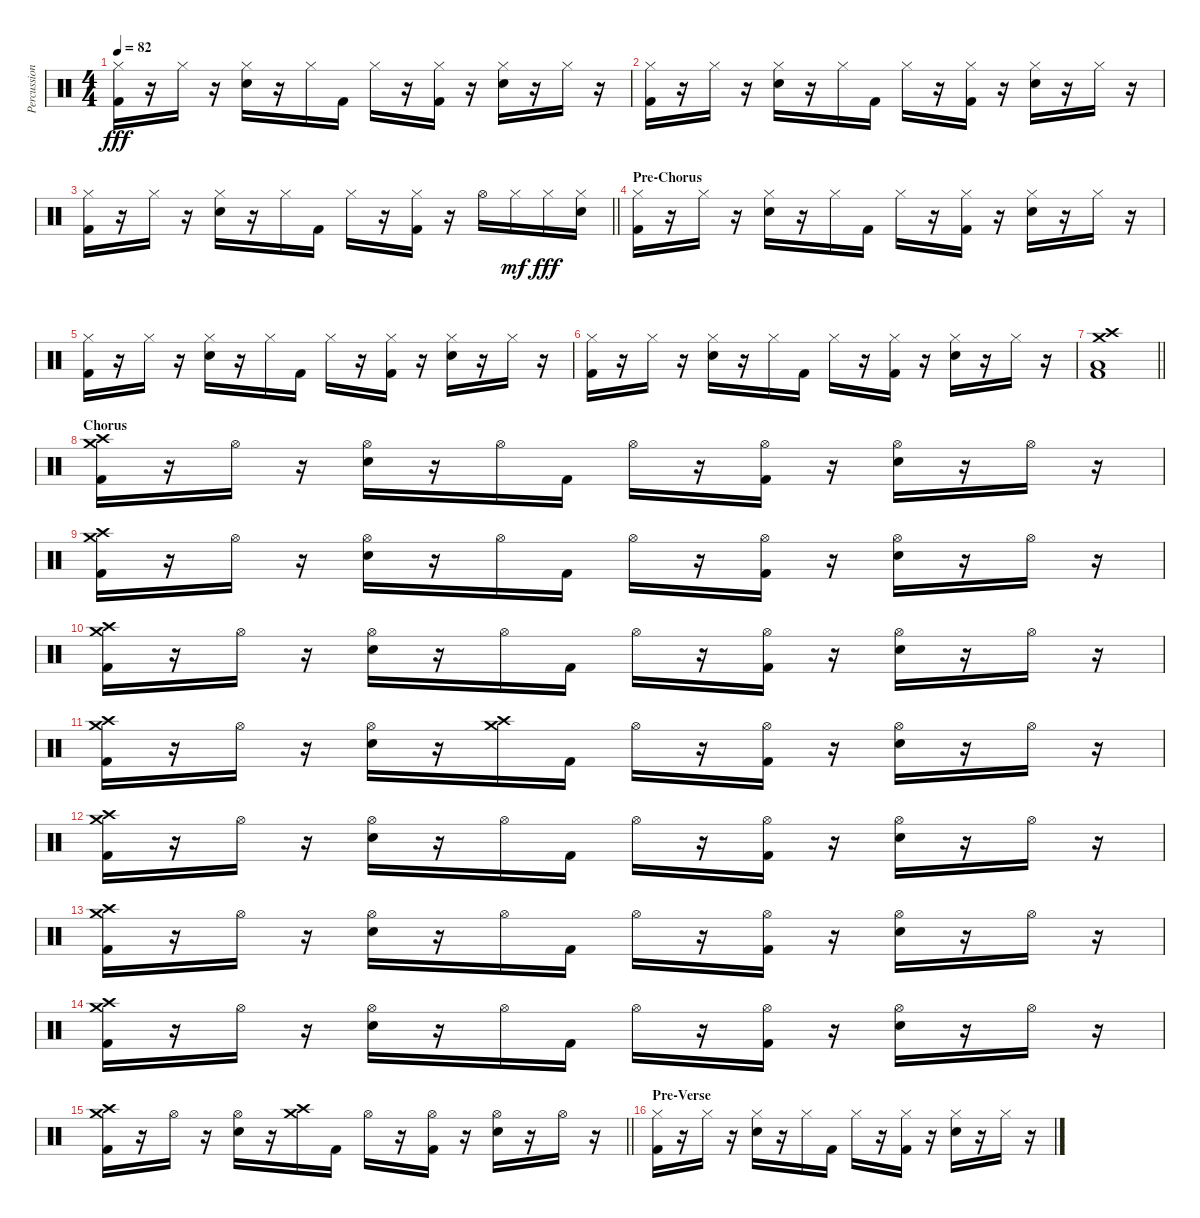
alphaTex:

\track ("Percussion" "Percussion") {instrument percussion}
\staff {score}
\articulation defaults
\ts (4 4)
\tempo 82
\clef neutral
\ks c
("Hi-Hat (closed)" "Kick (hit) 2").16{dy fff} r.16 "Hi-Hat (closed)".16 r.16 ("Hi-Hat (closed)" "Snare (hit) 2").16 r.16 "Hi-Hat (closed)".16 "Kick (hit) 2".16 "Hi-Hat (closed)".16 r.16 ("Hi-Hat (closed)" "Kick (hit) 2").16 r.16 ("Hi-Hat (closed)" "Snare (hit) 2").16 r.16 "Hi-Hat (closed)".16 r.16 |
("Hi-Hat (closed)" "Kick (hit) 2").16 r.16 "Hi-Hat (closed)".16 r.16 ("Hi-Hat (closed)" "Snare (hit) 2").16 r.16 "Hi-Hat (closed)".16 "Kick (hit) 2".16 "Hi-Hat (closed)".16 r.16 ("Hi-Hat (closed)" "Kick (hit) 2").16 r.16 ("Hi-Hat (closed)" "Snare (hit) 2").16 r.16 "Hi-Hat (closed)".16 r.16 |
\barLineRight lightlight
("Hi-Hat (closed)" "Kick (hit) 2").16 r.16 "Hi-Hat (closed)".16 r.16 ("Hi-Hat (closed)" "Snare (hit) 2").16 r.16 "Hi-Hat (closed)".16 "Kick (hit) 2".16 "Hi-Hat (closed)".16 r.16 ("Hi-Hat (closed)" "Kick (hit) 2").16 r.16 "Hi-Hat (open)".16 "Hi-Hat (closed)".16{dy mf} "Hi-Hat (closed)".16{dy fff} ("Hi-Hat (closed)" "Snare (hit) 2").16 |
\section ("" "Pre-Chorus")
("Hi-Hat (closed)" "Kick (hit) 2").16 r.16 "Hi-Hat (closed)".16 r.16 ("Hi-Hat (closed)" "Snare (hit) 2").16 r.16 "Hi-Hat (closed)".16 "Kick (hit) 2".16 "Hi-Hat (closed)".16 r.16 ("Hi-Hat (closed)" "Kick (hit) 2").16 r.16 ("Hi-Hat (closed)" "Snare (hit) 2").16 r.16 "Hi-Hat (closed)".16 r.16 |
("Hi-Hat (closed)" "Kick (hit) 2").16 r.16 "Hi-Hat (closed)".16 r.16 ("Hi-Hat (closed)" "Snare (hit) 2").16 r.16 "Hi-Hat (closed)".16 "Kick (hit) 2".16 "Hi-Hat (closed)".16 r.16 ("Hi-Hat (closed)" "Kick (hit) 2").16 r.16 ("Hi-Hat (closed)" "Snare (hit) 2").16 r.16 "Hi-Hat (closed)".16 r.16 |
("Hi-Hat (closed)" "Kick (hit) 2").16 r.16 "Hi-Hat (closed)".16 r.16 ("Hi-Hat (closed)" "Snare (hit) 2").16 r.16 "Hi-Hat (closed)".16 "Kick (hit) 2".16 "Hi-Hat (closed)".16 r.16 ("Hi-Hat (closed)" "Kick (hit) 2").16 r.16 ("Hi-Hat (closed)" "Snare (hit) 2").16 r.16 "Hi-Hat (closed)".16 r.16 |
\barLineRight lightlight
("Crash high (hit)" "Crash medium (hit)" "Low Floor Tom (hit)" "Kick (hit) 2").1 |
\section ("" "Chorus")
("Crash high (hit)" "Crash medium (hit)" "Kick (hit) 2").16 r.16 "Hi-Hat (open)".16 r.16 ("Hi-Hat (open)" "Snare (hit) 2").16 r.16 "Hi-Hat (open)".16 "Kick (hit) 2".16 "Hi-Hat (open)".16 r.16 ("Hi-Hat (open)" "Kick (hit) 2").16 r.16 ("Hi-Hat (open)" "Snare (hit) 2").16 r.16 "Hi-Hat (open)".16 r.16 |
("Crash high (hit)" "Crash medium (hit)" "Kick (hit) 2").16 r.16 "Hi-Hat (open)".16 r.16 ("Hi-Hat (open)" "Snare (hit) 2").16 r.16 "Hi-Hat (open)".16 "Kick (hit) 2".16 "Hi-Hat (open)".16 r.16 ("Hi-Hat (open)" "Kick (hit) 2").16 r.16 ("Hi-Hat (open)" "Snare (hit) 2").16 r.16 "Hi-Hat (open)".16 r.16 |
("Crash high (hit)" "Crash medium (hit)" "Kick (hit) 2").16 r.16 "Hi-Hat (open)".16 r.16 ("Hi-Hat (open)" "Snare (hit) 2").16 r.16 "Hi-Hat (open)".16 "Kick (hit) 2".16 "Hi-Hat (open)".16 r.16 ("Hi-Hat (open)" "Kick (hit) 2").16 r.16 ("Hi-Hat (open)" "Snare (hit) 2").16 r.16 "Hi-Hat (open)".16 r.16 |
("Crash high (hit)" "Crash medium (hit)" "Kick (hit) 2").16 r.16 "Hi-Hat (open)".16 r.16 ("Hi-Hat (open)" "Snare (hit) 2").16 r.16 ("Crash medium (hit)" "Crash high (hit)").16 "Kick (hit) 2".16 "Hi-Hat (open)".16 r.16 ("Hi-Hat (open)" "Kick (hit) 2").16 r.16 ("Hi-Hat (open)" "Snare (hit) 2").16 r.16 "Hi-Hat (open)".16 r.16 |
("Crash high (hit)" "Crash medium (hit)" "Kick (hit) 2").16 r.16 "Hi-Hat (open)".16 r.16 ("Hi-Hat (open)" "Snare (hit) 2").16 r.16 "Hi-Hat (open)".16 "Kick (hit) 2".16 "Hi-Hat (open)".16 r.16 ("Hi-Hat (open)" "Kick (hit) 2").16 r.16 ("Hi-Hat (open)" "Snare (hit) 2").16 r.16 "Hi-Hat (open)".16 r.16 |
("Crash high (hit)" "Crash medium (hit)" "Kick (hit) 2").16 r.16 "Hi-Hat (open)".16 r.16 ("Hi-Hat (open)" "Snare (hit) 2").16 r.16 "Hi-Hat (open)".16 "Kick (hit) 2".16 "Hi-Hat (open)".16 r.16 ("Hi-Hat (open)" "Kick (hit) 2").16 r.16 ("Hi-Hat (open)" "Snare (hit) 2").16 r.16 "Hi-Hat (open)".16 r.16 |
("Crash high (hit)" "Crash medium (hit)" "Kick (hit) 2").16 r.16 "Hi-Hat (open)".16 r.16 ("Hi-Hat (open)" "Snare (hit) 2").16 r.16 "Hi-Hat (open)".16 "Kick (hit) 2".16 "Hi-Hat (open)".16 r.16 ("Hi-Hat (open)" "Kick (hit) 2").16 r.16 ("Hi-Hat (open)" "Snare (hit) 2").16 r.16 "Hi-Hat (open)".16 r.16 |
\barLineRight lightlight
("Crash high (hit)" "Crash medium (hit)" "Kick (hit) 2").16 r.16 "Hi-Hat (open)".16 r.16 ("Hi-Hat (open)" "Snare (hit) 2").16 r.16 ("Crash medium (hit)" "Crash high (hit)").16 "Kick (hit) 2".16 "Hi-Hat (open)".16 r.16 ("Hi-Hat (open)" "Kick (hit) 2").16 r.16 ("Hi-Hat (open)" "Snare (hit) 2").16 r.16 "Hi-Hat (open)".16 r.16 |
\section ("" "Pre-Verse")
("Hi-Hat (closed)" "Kick (hit) 2").16 r.16 "Hi-Hat (closed)".16 r.16 ("Hi-Hat (closed)" "Snare (hit) 2").16 r.16 "Hi-Hat (closed)".16 "Kick (hit) 2".16 "Hi-Hat (closed)".16 r.16 ("Hi-Hat (closed)" "Kick (hit) 2").16 r.16 ("Hi-Hat (closed)" "Snare (hit) 2").16 r.16 "Hi-Hat (closed)".16 r.16
